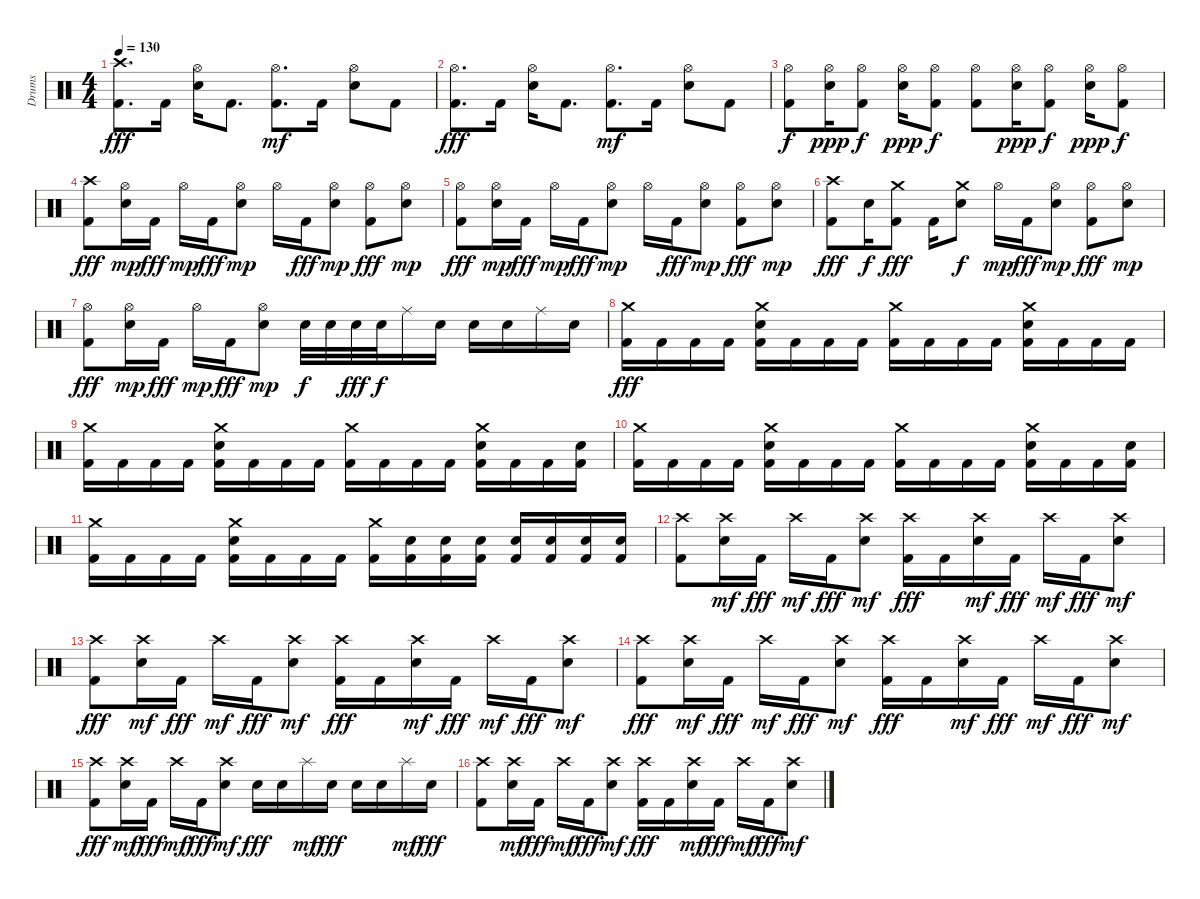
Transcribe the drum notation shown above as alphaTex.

\track ("Drums" "Drums") {instrument percussion}
\staff {score}
\articulation defaults
\ts (4 4)
\tempo 130
\clef neutral
\ks c
("Crash high (hit)" "Kick (hit) 2").8{d dy fff} "Kick (hit) 2".16 ("Hi-Hat (open)" "Electric Snare (hit)").16 "Kick (hit) 2".8{d} ("Hi-Hat (open)" "Kick (hit) 2").8{d dy mf} "Kick (hit) 2".16 ("Hi-Hat (open)" "Electric Snare (hit)").8 "Kick (hit) 2".8 |
("Hi-Hat (open)" "Kick (hit) 2").8{d dy fff} "Kick (hit) 2".16 ("Hi-Hat (open)" "Electric Snare (hit)").16 "Kick (hit) 2".8{d} ("Hi-Hat (open)" "Kick (hit) 2").8{d dy mf} "Kick (hit) 2".16 ("Hi-Hat (open)" "Electric Snare (hit)").8 "Kick (hit) 2".8 |
("Hi-Hat (open)" "Kick (hit) 2").8{dy f} ("Hi-Hat (open)" "Electric Snare (hit)").16{dy ppp} ("Hi-Hat (open)" "Kick (hit) 2").8{dy f} ("Hi-Hat (open)" "Electric Snare (hit)").16{dy ppp} ("Hi-Hat (open)" "Kick (hit) 2").8{dy f} ("Hi-Hat (open)" "Kick (hit) 2").8 ("Hi-Hat (open)" "Electric Snare (hit)").16{dy ppp} ("Hi-Hat (open)" "Kick (hit) 2").8{dy f} ("Hi-Hat (open)" "Electric Snare (hit)").16{dy ppp} ("Hi-Hat (open)" "Kick (hit) 2").8{dy f} |
("Crash high (hit)" "Kick (hit) 2").8{dy fff} ("Hi-Hat (open)" "Electric Snare (hit)").16{dy mp} "Kick (hit) 2".16{dy fff} "Hi-Hat (open)".16{dy mp} "Kick (hit) 2".16{dy fff} ("Hi-Hat (open)" "Electric Snare (hit)").8{dy mp} "Hi-Hat (open)".16 "Kick (hit) 2".16{dy fff} ("Hi-Hat (open)" "Electric Snare (hit)").8{dy mp} ("Hi-Hat (open)" "Kick (hit) 2").8{dy fff} ("Hi-Hat (open)" "Electric Snare (hit)").8{dy mp} |
("Hi-Hat (open)" "Kick (hit) 2").8{dy fff} ("Hi-Hat (open)" "Electric Snare (hit)").16{dy mp} "Kick (hit) 2".16{dy fff} "Hi-Hat (open)".16{dy mp} "Kick (hit) 2".16{dy fff} ("Hi-Hat (open)" "Electric Snare (hit)").8{dy mp} "Hi-Hat (open)".16 "Kick (hit) 2".16{dy fff} ("Hi-Hat (open)" "Electric Snare (hit)").8{dy mp} ("Hi-Hat (open)" "Kick (hit) 2").8{dy fff} ("Hi-Hat (open)" "Electric Snare (hit)").8{dy mp} |
("Crash high (hit)" "Kick (hit) 2").8{dy fff} "Electric Snare (hit)".16{dy f} ("Crash medium (hit)" "Kick (hit) 2").8{dy fff} "Kick (hit) 2".16 ("Crash medium (hit)" "Electric Snare (hit)").8{dy f} "Hi-Hat (open)".16{dy mp} "Kick (hit) 2".16{dy fff} ("Hi-Hat (open)" "Electric Snare (hit)").8{dy mp} ("Hi-Hat (open)" "Kick (hit) 2").8{dy fff} ("Hi-Hat (open)" "Electric Snare (hit)").8{dy mp} |
("Hi-Hat (open)" "Kick (hit) 2").8{dy fff} ("Hi-Hat (open)" "Electric Snare (hit)").16{dy mp} "Kick (hit) 2".16{dy fff} "Hi-Hat (open)".16{dy mp} "Kick (hit) 2".16{dy fff} ("Hi-Hat (open)" "Electric Snare (hit)").8{dy mp} "Electric Snare (hit)".32{dy f} "Electric Snare (hit)".32 "Electric Snare (hit)".32{dy fff} "Electric Snare (hit)".32{dy f} "Ride (middle)".16 "Electric Snare (hit)".16 "Electric Snare (hit)".16 "Electric Snare (hit)".16 "Ride (middle)".16 "Electric Snare (hit)".16 |
("Crash medium (hit)" "Kick (hit) 2").16{dy fff} "Kick (hit) 2".16 "Kick (hit) 2".16 "Kick (hit) 2".16 ("Crash medium (hit)" "Electric Snare (hit)" "Kick (hit) 2").16 "Kick (hit) 2".16 "Kick (hit) 2".16 "Kick (hit) 2".16 ("Crash medium (hit)" "Kick (hit) 2").16 "Kick (hit) 2".16 "Kick (hit) 2".16 "Kick (hit) 2".16 ("Crash medium (hit)" "Electric Snare (hit)" "Kick (hit) 2").16 "Kick (hit) 2".16 "Kick (hit) 2".16 "Kick (hit) 2".16 |
("Crash medium (hit)" "Kick (hit) 2").16 "Kick (hit) 2".16 "Kick (hit) 2".16 "Kick (hit) 2".16 ("Crash medium (hit)" "Electric Snare (hit)" "Kick (hit) 2").16 "Kick (hit) 2".16 "Kick (hit) 2".16 "Kick (hit) 2".16 ("Crash medium (hit)" "Kick (hit) 2").16 "Kick (hit) 2".16 "Kick (hit) 2".16 "Kick (hit) 2".16 ("Crash medium (hit)" "Electric Snare (hit)" "Kick (hit) 2").16 "Kick (hit) 2".16 "Kick (hit) 2".16 ("Electric Snare (hit)" "Kick (hit) 2").16 |
("Crash medium (hit)" "Kick (hit) 2").16 "Kick (hit) 2".16 "Kick (hit) 2".16 "Kick (hit) 2".16 ("Crash medium (hit)" "Electric Snare (hit)" "Kick (hit) 2").16 "Kick (hit) 2".16 "Kick (hit) 2".16 "Kick (hit) 2".16 ("Crash medium (hit)" "Kick (hit) 2").16 "Kick (hit) 2".16 "Kick (hit) 2".16 "Kick (hit) 2".16 ("Crash medium (hit)" "Electric Snare (hit)" "Kick (hit) 2").16 "Kick (hit) 2".16 "Kick (hit) 2".16 ("Electric Snare (hit)" "Kick (hit) 2").16 |
("Crash medium (hit)" "Kick (hit) 2").16 "Kick (hit) 2".16 "Kick (hit) 2".16 "Kick (hit) 2".16 ("Crash medium (hit)" "Electric Snare (hit)" "Kick (hit) 2").16 "Kick (hit) 2".16 "Kick (hit) 2".16 "Kick (hit) 2".16 ("Crash medium (hit)" "Kick (hit) 2").16 ("Electric Snare (hit)" "Kick (hit) 2").16 ("Electric Snare (hit)" "Kick (hit) 2").16 ("Electric Snare (hit)" "Kick (hit) 2").16 ("Electric Snare (hit)" "Kick (hit) 2").16 ("Electric Snare (hit)" "Kick (hit) 2").16 ("Electric Snare (hit)" "Kick (hit) 2").16 ("Electric Snare (hit)" "Kick (hit) 2").16 |
("Crash high (hit)" "Kick (hit) 2").8 ("Crash high (hit)" "Electric Snare (hit)").16{dy mf} "Kick (hit) 2".16{dy fff} "Crash high (hit)".16{dy mf} "Kick (hit) 2".16{dy fff} ("Crash high (hit)" "Electric Snare (hit)").8{dy mf} ("Crash high (hit)" "Kick (hit) 2").16{dy fff} "Kick (hit) 2".16 ("Crash high (hit)" "Electric Snare (hit)").16{dy mf} "Kick (hit) 2".16{dy fff} "Crash high (hit)".16{dy mf} "Kick (hit) 2".16{dy fff} ("Crash high (hit)" "Electric Snare (hit)").8{dy mf} |
("Crash high (hit)" "Kick (hit) 2").8{dy fff} ("Crash high (hit)" "Electric Snare (hit)").16{dy mf} "Kick (hit) 2".16{dy fff} "Crash high (hit)".16{dy mf} "Kick (hit) 2".16{dy fff} ("Crash high (hit)" "Electric Snare (hit)").8{dy mf} ("Crash high (hit)" "Kick (hit) 2").16{dy fff} "Kick (hit) 2".16 ("Crash high (hit)" "Electric Snare (hit)").16{dy mf} "Kick (hit) 2".16{dy fff} "Crash high (hit)".16{dy mf} "Kick (hit) 2".16{dy fff} ("Crash high (hit)" "Electric Snare (hit)").8{dy mf} |
("Crash high (hit)" "Kick (hit) 2").8{dy fff} ("Crash high (hit)" "Electric Snare (hit)").16{dy mf} "Kick (hit) 2".16{dy fff} "Crash high (hit)".16{dy mf} "Kick (hit) 2".16{dy fff} ("Crash high (hit)" "Electric Snare (hit)").8{dy mf} ("Crash high (hit)" "Kick (hit) 2").16{dy fff} "Kick (hit) 2".16 ("Crash high (hit)" "Electric Snare (hit)").16{dy mf} "Kick (hit) 2".16{dy fff} "Crash high (hit)".16{dy mf} "Kick (hit) 2".16{dy fff} ("Crash high (hit)" "Electric Snare (hit)").8{dy mf} |
("Crash high (hit)" "Kick (hit) 2").8{dy fff} ("Crash high (hit)" "Electric Snare (hit)").16{dy mf} "Kick (hit) 2".16{dy fff} "Crash high (hit)".16{dy mf} "Kick (hit) 2".16{dy fff} ("Crash high (hit)" "Electric Snare (hit)").8{dy mf} "Electric Snare (hit)".16{dy fff} "Electric Snare (hit)".16 "Splash (hit)".16{dy mf} "Electric Snare (hit)".16{dy fff} "Electric Snare (hit)".16 "Electric Snare (hit)".16 "Splash (hit)".16{dy mf} "Electric Snare (hit)".16{dy fff} |
("Crash high (hit)" "Kick (hit) 2").8 ("Crash high (hit)" "Electric Snare (hit)").16{dy mf} "Kick (hit) 2".16{dy fff} "Crash high (hit)".16{dy mf} "Kick (hit) 2".16{dy fff} ("Crash high (hit)" "Electric Snare (hit)").8{dy mf} ("Crash high (hit)" "Kick (hit) 2").16{dy fff} "Kick (hit) 2".16 ("Crash high (hit)" "Electric Snare (hit)").16{dy mf} "Kick (hit) 2".16{dy fff} "Crash high (hit)".16{dy mf} "Kick (hit) 2".16{dy fff} ("Crash high (hit)" "Electric Snare (hit)").8{dy mf}
